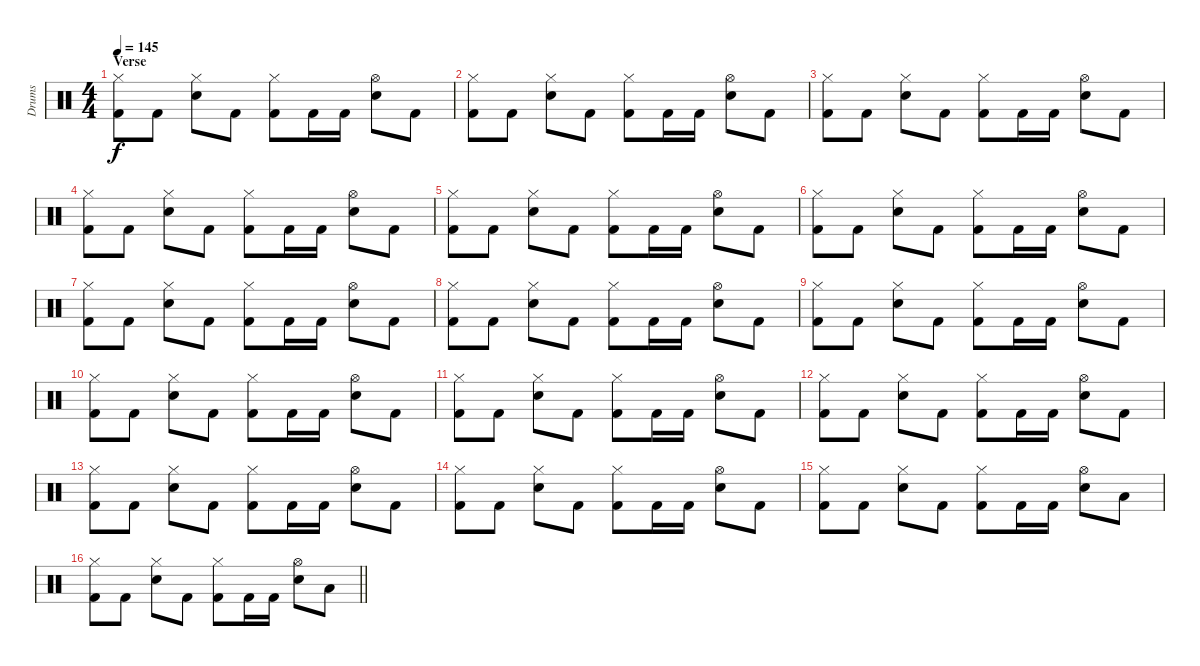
\track ("Drums" "Drums") {instrument percussion}
\staff {score}
\articulation defaults
\ts (4 4)
\section ("" "Verse")
\tempo 145
\clef neutral
\ks c
("Hi-Hat (closed)" "Kick (hit) 2").8{dy f} "Kick (hit) 2".8 ("Hi-Hat (closed)" "Snare (hit) 2").8 "Kick (hit) 2".8 ("Hi-Hat (closed)" "Kick (hit) 2").8 "Kick (hit) 2".16 "Kick (hit) 2".16 ("Hi-Hat (open)" "Snare (hit) 2").8 "Kick (hit) 2".8 |
("Hi-Hat (closed)" "Kick (hit) 2").8 "Kick (hit) 2".8 ("Hi-Hat (closed)" "Snare (hit) 2").8 "Kick (hit) 2".8 ("Hi-Hat (closed)" "Kick (hit) 2").8 "Kick (hit) 2".16 "Kick (hit) 2".16 ("Hi-Hat (open)" "Snare (hit) 2").8 "Kick (hit) 2".8 |
("Hi-Hat (closed)" "Kick (hit) 2").8 "Kick (hit) 2".8 ("Hi-Hat (closed)" "Snare (hit) 2").8 "Kick (hit) 2".8 ("Hi-Hat (closed)" "Kick (hit) 2").8 "Kick (hit) 2".16 "Kick (hit) 2".16 ("Hi-Hat (open)" "Snare (hit) 2").8 "Kick (hit) 2".8 |
("Hi-Hat (closed)" "Kick (hit) 2").8 "Kick (hit) 2".8 ("Hi-Hat (closed)" "Snare (hit) 2").8 "Kick (hit) 2".8 ("Hi-Hat (closed)" "Kick (hit) 2").8 "Kick (hit) 2".16 "Kick (hit) 2".16 ("Hi-Hat (open)" "Snare (hit) 2").8 "Kick (hit) 2".8 |
("Hi-Hat (closed)" "Kick (hit) 2").8 "Kick (hit) 2".8 ("Hi-Hat (closed)" "Snare (hit) 2").8 "Kick (hit) 2".8 ("Hi-Hat (closed)" "Kick (hit) 2").8 "Kick (hit) 2".16 "Kick (hit) 2".16 ("Hi-Hat (open)" "Snare (hit) 2").8 "Kick (hit) 2".8 |
("Hi-Hat (closed)" "Kick (hit) 2").8 "Kick (hit) 2".8 ("Hi-Hat (closed)" "Snare (hit) 2").8 "Kick (hit) 2".8 ("Hi-Hat (closed)" "Kick (hit) 2").8 "Kick (hit) 2".16 "Kick (hit) 2".16 ("Hi-Hat (open)" "Snare (hit) 2").8 "Kick (hit) 2".8 |
("Hi-Hat (closed)" "Kick (hit) 2").8 "Kick (hit) 2".8 ("Hi-Hat (closed)" "Snare (hit) 2").8 "Kick (hit) 2".8 ("Hi-Hat (closed)" "Kick (hit) 2").8 "Kick (hit) 2".16 "Kick (hit) 2".16 ("Hi-Hat (open)" "Snare (hit) 2").8 "Kick (hit) 2".8 |
("Hi-Hat (closed)" "Kick (hit) 2").8 "Kick (hit) 2".8 ("Hi-Hat (closed)" "Snare (hit) 2").8 "Kick (hit) 2".8 ("Hi-Hat (closed)" "Kick (hit) 2").8 "Kick (hit) 2".16 "Kick (hit) 2".16 ("Hi-Hat (open)" "Snare (hit) 2").8 "Kick (hit) 2".8 |
("Hi-Hat (closed)" "Kick (hit) 2").8 "Kick (hit) 2".8 ("Hi-Hat (closed)" "Snare (hit) 2").8 "Kick (hit) 2".8 ("Hi-Hat (closed)" "Kick (hit) 2").8 "Kick (hit) 2".16 "Kick (hit) 2".16 ("Hi-Hat (open)" "Snare (hit) 2").8 "Kick (hit) 2".8 |
("Hi-Hat (closed)" "Kick (hit) 2").8 "Kick (hit) 2".8 ("Hi-Hat (closed)" "Snare (hit) 2").8 "Kick (hit) 2".8 ("Hi-Hat (closed)" "Kick (hit) 2").8 "Kick (hit) 2".16 "Kick (hit) 2".16 ("Hi-Hat (open)" "Snare (hit) 2").8 "Kick (hit) 2".8 |
("Hi-Hat (closed)" "Kick (hit) 2").8 "Kick (hit) 2".8 ("Hi-Hat (closed)" "Snare (hit) 2").8 "Kick (hit) 2".8 ("Hi-Hat (closed)" "Kick (hit) 2").8 "Kick (hit) 2".16 "Kick (hit) 2".16 ("Hi-Hat (open)" "Snare (hit) 2").8 "Kick (hit) 2".8 |
("Hi-Hat (closed)" "Kick (hit) 2").8 "Kick (hit) 2".8 ("Hi-Hat (closed)" "Snare (hit) 2").8 "Kick (hit) 2".8 ("Hi-Hat (closed)" "Kick (hit) 2").8 "Kick (hit) 2".16 "Kick (hit) 2".16 ("Hi-Hat (open)" "Snare (hit) 2").8 "Kick (hit) 2".8 |
("Hi-Hat (closed)" "Kick (hit) 2").8 "Kick (hit) 2".8 ("Hi-Hat (closed)" "Snare (hit) 2").8 "Kick (hit) 2".8 ("Hi-Hat (closed)" "Kick (hit) 2").8 "Kick (hit) 2".16 "Kick (hit) 2".16 ("Hi-Hat (open)" "Snare (hit) 2").8 "Kick (hit) 2".8 |
("Hi-Hat (closed)" "Kick (hit) 2").8 "Kick (hit) 2".8 ("Hi-Hat (closed)" "Snare (hit) 2").8 "Kick (hit) 2".8 ("Hi-Hat (closed)" "Kick (hit) 2").8 "Kick (hit) 2".16 "Kick (hit) 2".16 ("Hi-Hat (open)" "Snare (hit) 2").8 "Kick (hit) 2".8 |
("Hi-Hat (closed)" "Kick (hit) 2").8 "Kick (hit) 2".8 ("Hi-Hat (closed)" "Snare (hit) 2").8 "Kick (hit) 2".8 ("Hi-Hat (closed)" "Kick (hit) 2").8 "Kick (hit) 2".16 "Kick (hit) 2".16 ("Hi-Hat (open)" "Snare (hit) 2").8 "Low Tom (hit)".8 |
\barLineRight lightlight
("Hi-Hat (closed)" "Kick (hit) 2").8 "Kick (hit) 2".8 ("Hi-Hat (closed)" "Snare (hit) 2").8 "Kick (hit) 2".8 ("Hi-Hat (closed)" "Kick (hit) 2").8 "Kick (hit) 2".16 "Kick (hit) 2".16 ("Hi-Hat (open)" "Snare (hit) 2").8 "Low Tom (hit)".8
